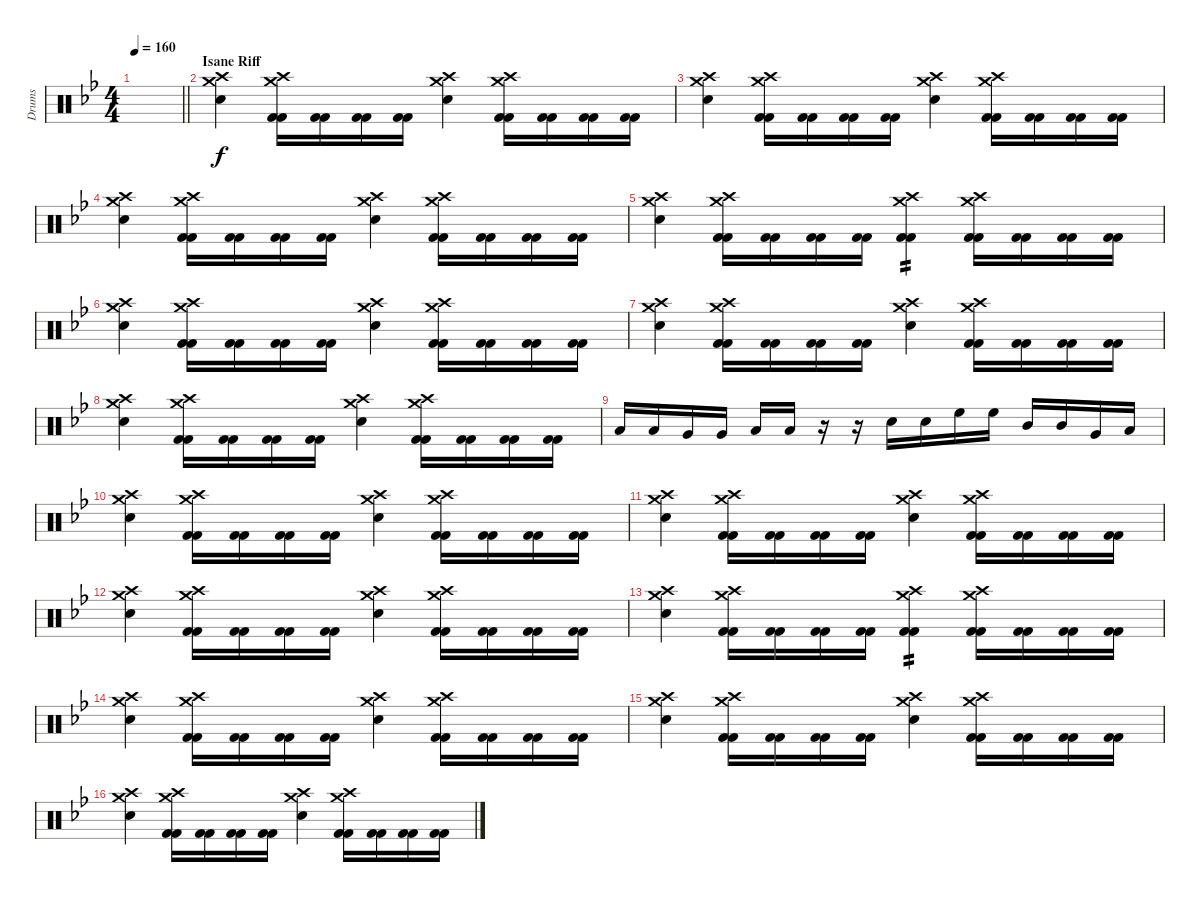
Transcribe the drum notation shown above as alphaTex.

\track ("Drums" "Drums") {instrument percussion}
\staff {score}
\articulation defaults
\ts (4 4)
\tempo 160
\clef neutral
\barLineRight lightlight
\ks bb
|
\section ("" "Isane Riff")
("Crash high (hit)" "Crash medium (hit)" "Electric Snare (hit)").4 ("Crash high (hit)" "Crash medium (hit)" "Kick (hit) 2" "Kick (hit) 2").16 ("Kick (hit) 2" "Kick (hit) 2").16 ("Kick (hit) 2" "Kick (hit) 2").16 ("Kick (hit) 2" "Kick (hit) 2").16 ("Crash high (hit)" "Crash medium (hit)" "Electric Snare (hit)").4 ("Crash high (hit)" "Crash medium (hit)" "Kick (hit) 2" "Kick (hit) 2").16 ("Kick (hit) 2" "Kick (hit) 2").16 ("Kick (hit) 2" "Kick (hit) 2").16 ("Kick (hit) 2" "Kick (hit) 2").16 |
("Crash high (hit)" "Crash medium (hit)" "Electric Snare (hit)").4 ("Crash high (hit)" "Crash medium (hit)" "Kick (hit) 2" "Kick (hit) 2").16 ("Kick (hit) 2" "Kick (hit) 2").16 ("Kick (hit) 2" "Kick (hit) 2").16 ("Kick (hit) 2" "Kick (hit) 2").16 ("Crash high (hit)" "Crash medium (hit)" "Electric Snare (hit)").4 ("Crash high (hit)" "Crash medium (hit)" "Kick (hit) 2" "Kick (hit) 2").16 ("Kick (hit) 2" "Kick (hit) 2").16 ("Kick (hit) 2" "Kick (hit) 2").16 ("Kick (hit) 2" "Kick (hit) 2").16 |
("Crash high (hit)" "Crash medium (hit)" "Electric Snare (hit)").4 ("Crash high (hit)" "Crash medium (hit)" "Kick (hit) 2" "Kick (hit) 2").16 ("Kick (hit) 2" "Kick (hit) 2").16 ("Kick (hit) 2" "Kick (hit) 2").16 ("Kick (hit) 2" "Kick (hit) 2").16 ("Crash high (hit)" "Crash medium (hit)" "Electric Snare (hit)").4 ("Crash high (hit)" "Crash medium (hit)" "Kick (hit) 2" "Kick (hit) 2").16 ("Kick (hit) 2" "Kick (hit) 2").16 ("Kick (hit) 2" "Kick (hit) 2").16 ("Kick (hit) 2" "Kick (hit) 2").16 |
("Crash high (hit)" "Crash medium (hit)" "Electric Snare (hit)").4 ("Crash high (hit)" "Crash medium (hit)" "Kick (hit) 2" "Kick (hit) 2").16 ("Kick (hit) 2" "Kick (hit) 2").16 ("Kick (hit) 2" "Kick (hit) 2").16 ("Kick (hit) 2" "Kick (hit) 2").16 ("Crash high (hit)" "Crash medium (hit)" "Kick (hit) 2" "Kick (hit) 2").4{tp 2} ("Crash high (hit)" "Crash medium (hit)" "Kick (hit) 2" "Kick (hit) 2").16 ("Kick (hit) 2" "Kick (hit) 2").16 ("Kick (hit) 2" "Kick (hit) 2").16 ("Kick (hit) 2" "Kick (hit) 2").16 |
("Crash high (hit)" "Crash medium (hit)" "Electric Snare (hit)").4 ("Crash high (hit)" "Crash medium (hit)" "Kick (hit) 2" "Kick (hit) 2").16 ("Kick (hit) 2" "Kick (hit) 2").16 ("Kick (hit) 2" "Kick (hit) 2").16 ("Kick (hit) 2" "Kick (hit) 2").16 ("Crash high (hit)" "Crash medium (hit)" "Electric Snare (hit)").4 ("Crash high (hit)" "Crash medium (hit)" "Kick (hit) 2" "Kick (hit) 2").16 ("Kick (hit) 2" "Kick (hit) 2").16 ("Kick (hit) 2" "Kick (hit) 2").16 ("Kick (hit) 2" "Kick (hit) 2").16 |
("Crash high (hit)" "Crash medium (hit)" "Electric Snare (hit)").4 ("Crash high (hit)" "Crash medium (hit)" "Kick (hit) 2" "Kick (hit) 2").16 ("Kick (hit) 2" "Kick (hit) 2").16 ("Kick (hit) 2" "Kick (hit) 2").16 ("Kick (hit) 2" "Kick (hit) 2").16 ("Crash high (hit)" "Crash medium (hit)" "Electric Snare (hit)").4 ("Crash high (hit)" "Crash medium (hit)" "Kick (hit) 2" "Kick (hit) 2").16 ("Kick (hit) 2" "Kick (hit) 2").16 ("Kick (hit) 2" "Kick (hit) 2").16 ("Kick (hit) 2" "Kick (hit) 2").16 |
("Crash high (hit)" "Crash medium (hit)" "Electric Snare (hit)").4 ("Crash high (hit)" "Crash medium (hit)" "Kick (hit) 2" "Kick (hit) 2").16 ("Kick (hit) 2" "Kick (hit) 2").16 ("Kick (hit) 2" "Kick (hit) 2").16 ("Kick (hit) 2" "Kick (hit) 2").16 ("Crash high (hit)" "Crash medium (hit)" "Electric Snare (hit)").4 ("Crash high (hit)" "Crash medium (hit)" "Kick (hit) 2" "Kick (hit) 2").16 ("Kick (hit) 2" "Kick (hit) 2").16 ("Kick (hit) 2" "Kick (hit) 2").16 ("Kick (hit) 2" "Kick (hit) 2").16 |
"Low Tom (hit)".16 "Low Tom (hit)".16 "Very Low Tom (hit)".16 "Very Low Tom (hit)".16 "Low Floor Tom (hit)".16 "Low Floor Tom (hit)".16 r.16 r.16 "Electric Snare (hit)".16 "Electric Snare (hit)".16 "High Floor Tom (hit)".16 "High Floor Tom (hit)".16 "Mid Tom (hit)".16 "Mid Tom (hit)".16 "Very Low Tom (hit)".16 "Low Floor Tom (hit)".16 |
("Crash high (hit)" "Crash medium (hit)" "Electric Snare (hit)").4 ("Crash high (hit)" "Crash medium (hit)" "Kick (hit) 2" "Kick (hit) 2").16 ("Kick (hit) 2" "Kick (hit) 2").16 ("Kick (hit) 2" "Kick (hit) 2").16 ("Kick (hit) 2" "Kick (hit) 2").16 ("Crash high (hit)" "Crash medium (hit)" "Electric Snare (hit)").4 ("Crash high (hit)" "Crash medium (hit)" "Kick (hit) 2" "Kick (hit) 2").16 ("Kick (hit) 2" "Kick (hit) 2").16 ("Kick (hit) 2" "Kick (hit) 2").16 ("Kick (hit) 2" "Kick (hit) 2").16 |
("Crash high (hit)" "Crash medium (hit)" "Electric Snare (hit)").4 ("Crash high (hit)" "Crash medium (hit)" "Kick (hit) 2" "Kick (hit) 2").16 ("Kick (hit) 2" "Kick (hit) 2").16 ("Kick (hit) 2" "Kick (hit) 2").16 ("Kick (hit) 2" "Kick (hit) 2").16 ("Crash high (hit)" "Crash medium (hit)" "Electric Snare (hit)").4 ("Crash high (hit)" "Crash medium (hit)" "Kick (hit) 2" "Kick (hit) 2").16 ("Kick (hit) 2" "Kick (hit) 2").16 ("Kick (hit) 2" "Kick (hit) 2").16 ("Kick (hit) 2" "Kick (hit) 2").16 |
("Crash high (hit)" "Crash medium (hit)" "Electric Snare (hit)").4 ("Crash high (hit)" "Crash medium (hit)" "Kick (hit) 2" "Kick (hit) 2").16 ("Kick (hit) 2" "Kick (hit) 2").16 ("Kick (hit) 2" "Kick (hit) 2").16 ("Kick (hit) 2" "Kick (hit) 2").16 ("Crash high (hit)" "Crash medium (hit)" "Electric Snare (hit)").4 ("Crash high (hit)" "Crash medium (hit)" "Kick (hit) 2" "Kick (hit) 2").16 ("Kick (hit) 2" "Kick (hit) 2").16 ("Kick (hit) 2" "Kick (hit) 2").16 ("Kick (hit) 2" "Kick (hit) 2").16 |
("Crash high (hit)" "Crash medium (hit)" "Electric Snare (hit)").4 ("Crash high (hit)" "Crash medium (hit)" "Kick (hit) 2" "Kick (hit) 2").16 ("Kick (hit) 2" "Kick (hit) 2").16 ("Kick (hit) 2" "Kick (hit) 2").16 ("Kick (hit) 2" "Kick (hit) 2").16 ("Crash high (hit)" "Crash medium (hit)" "Kick (hit) 2" "Kick (hit) 2").4{tp 2} ("Crash high (hit)" "Crash medium (hit)" "Kick (hit) 2" "Kick (hit) 2").16 ("Kick (hit) 2" "Kick (hit) 2").16 ("Kick (hit) 2" "Kick (hit) 2").16 ("Kick (hit) 2" "Kick (hit) 2").16 |
("Crash high (hit)" "Crash medium (hit)" "Electric Snare (hit)").4 ("Crash high (hit)" "Crash medium (hit)" "Kick (hit) 2" "Kick (hit) 2").16 ("Kick (hit) 2" "Kick (hit) 2").16 ("Kick (hit) 2" "Kick (hit) 2").16 ("Kick (hit) 2" "Kick (hit) 2").16 ("Crash high (hit)" "Crash medium (hit)" "Electric Snare (hit)").4 ("Crash high (hit)" "Crash medium (hit)" "Kick (hit) 2" "Kick (hit) 2").16 ("Kick (hit) 2" "Kick (hit) 2").16 ("Kick (hit) 2" "Kick (hit) 2").16 ("Kick (hit) 2" "Kick (hit) 2").16 |
("Crash high (hit)" "Crash medium (hit)" "Electric Snare (hit)").4 ("Crash high (hit)" "Crash medium (hit)" "Kick (hit) 2" "Kick (hit) 2").16 ("Kick (hit) 2" "Kick (hit) 2").16 ("Kick (hit) 2" "Kick (hit) 2").16 ("Kick (hit) 2" "Kick (hit) 2").16 ("Crash high (hit)" "Crash medium (hit)" "Electric Snare (hit)").4 ("Crash high (hit)" "Crash medium (hit)" "Kick (hit) 2" "Kick (hit) 2").16 ("Kick (hit) 2" "Kick (hit) 2").16 ("Kick (hit) 2" "Kick (hit) 2").16 ("Kick (hit) 2" "Kick (hit) 2").16 |
("Crash high (hit)" "Crash medium (hit)" "Electric Snare (hit)").4 ("Crash high (hit)" "Crash medium (hit)" "Kick (hit) 2" "Kick (hit) 2").16 ("Kick (hit) 2" "Kick (hit) 2").16 ("Kick (hit) 2" "Kick (hit) 2").16 ("Kick (hit) 2" "Kick (hit) 2").16 ("Crash high (hit)" "Crash medium (hit)" "Electric Snare (hit)").4 ("Crash high (hit)" "Crash medium (hit)" "Kick (hit) 2" "Kick (hit) 2").16 ("Kick (hit) 2" "Kick (hit) 2").16 ("Kick (hit) 2" "Kick (hit) 2").16 ("Kick (hit) 2" "Kick (hit) 2").16
